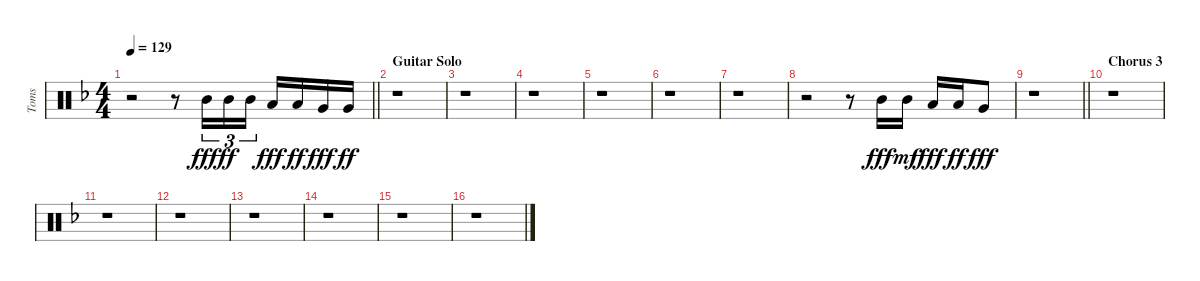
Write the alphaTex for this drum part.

\track ("Toms" "Toms") {instrument percussion}
\staff {score}
\articulation defaults
\ts (4 4)
\tempo 129
\clef neutral
\barLineRight lightlight
\ks dminor
r.2{dy ff} r.8 "Mid Tom (hit)".16{tu (3 2) dy fff balance 10} "Mid Tom (hit)".16{tu (3 2) dy ff} "Mid Tom (hit)".16{tu (3 2)} "Low Tom (hit)".16{dy fff balance 8} "Low Tom (hit)".16{dy ff} "Very Low Tom (hit)".16{dy fff balance 4} "Very Low Tom (hit)".16{dy ff} |
\section ("" "Guitar Solo")
r.1 |
r.1 |
r.1 |
r.1 |
r.1 |
r.1 |
r.2 r.8 "Mid Tom (hit)".16{dy fff balance 10} "Mid Tom (hit)".16{dy mf} "Low Tom (hit)".16{dy fff balance 8} "Low Tom (hit)".16{dy ff} "Very Low Tom (hit)".8{dy fff balance 4} |
\barLineRight lightlight
r.1 |
\section ("" "Chorus 3")
r.1 |
r.1 |
r.1 |
r.1 |
r.1 |
r.1 |
r.1
